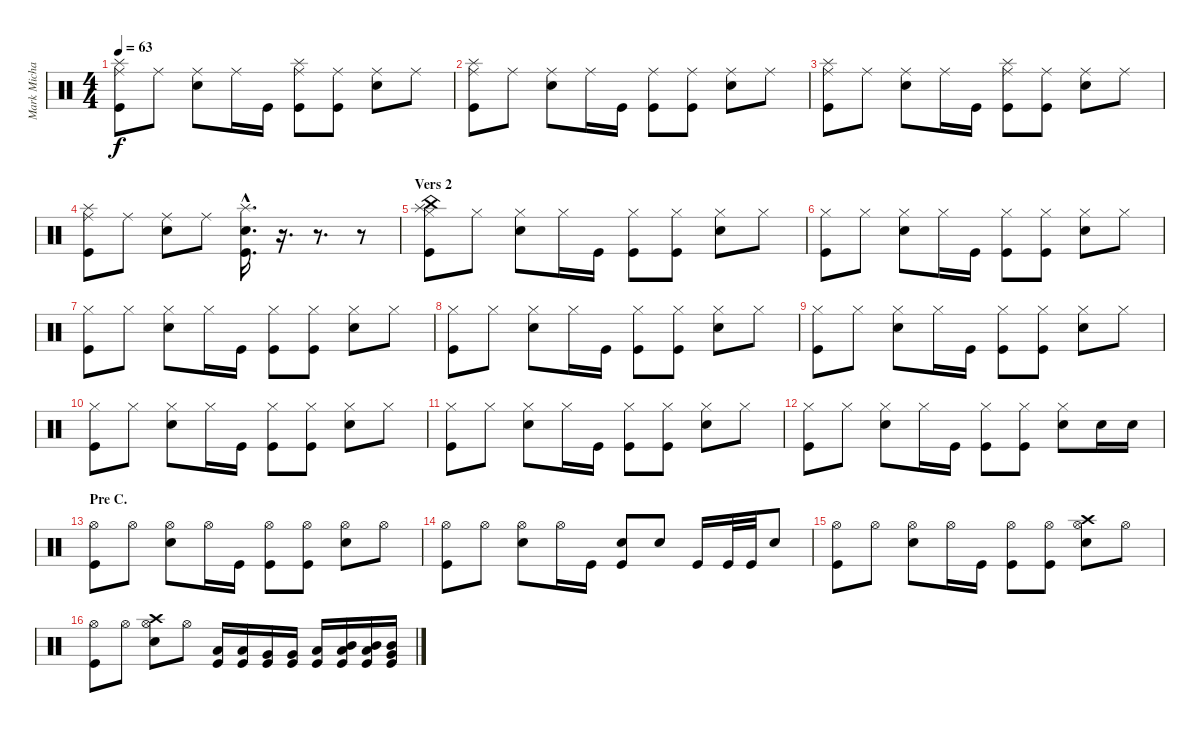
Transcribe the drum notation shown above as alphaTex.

\track ("Mark Michals - Drums" "Mark Micha") {instrument percussion}
\staff {score}
\articulation defaults
\ts (4 4)
\tempo 63
\clef neutral
\ks c
("Ride (middle)" "Splash (hit)" "Kick (hit)").8{dy f} "Ride (middle)".8 ("Ride (middle)" "Snare (hit) 2").8 "Ride (middle)".16 "Kick (hit)".16 ("Ride (middle)" "Splash (hit)" "Kick (hit)").8 ("Ride (middle)" "Kick (hit)").8 ("Ride (middle)" "Snare (hit) 2").8 "Ride (middle)".8 |
("Ride (middle)" "Splash (hit)" "Kick (hit)").8 "Ride (middle)".8 ("Ride (middle)" "Snare (hit) 2").8 "Ride (middle)".16 "Kick (hit)".16 ("Ride (middle)" "Kick (hit)").8 ("Ride (middle)" "Kick (hit)").8 ("Ride (middle)" "Snare (hit) 2").8 "Ride (middle)".8 |
("Ride (middle)" "Splash (hit)" "Kick (hit)").8 "Ride (middle)".8 ("Ride (middle)" "Snare (hit) 2").8 "Ride (middle)".16 "Kick (hit)".16 ("Ride (middle)" "Splash (hit)" "Kick (hit)").8 ("Ride (middle)" "Kick (hit)").8 ("Ride (middle)" "Snare (hit) 2").8 "Ride (middle)".8 |
("Ride (middle)" "Splash (hit)" "Kick (hit)").8 "Ride (middle)".8 ("Ride (middle)" "Snare (hit) 2").8 "Ride (middle)".8 ("Splash (hit)"{hac} "Snare (hit) 2"{hac} "Kick (hit)"{hac}).16{d} r.16{d volume 0} r.8{d} r.8{volume 13} |
\section ("" "Vers 2")
("Hi-Hat (closed)" "China (hit)" "Splash (hit)" "Kick (hit)").8 "Hi-Hat (closed)".8 ("Hi-Hat (closed)" "Snare (hit) 2").8 "Hi-Hat (closed)".16 "Kick (hit)".16 ("Hi-Hat (closed)" "Kick (hit)").8 ("Hi-Hat (closed)" "Kick (hit)").8 ("Hi-Hat (closed)" "Snare (hit) 2").8 "Hi-Hat (closed)".8 |
("Hi-Hat (closed)" "Kick (hit)").8 "Hi-Hat (closed)".8 ("Hi-Hat (closed)" "Snare (hit) 2").8 "Hi-Hat (closed)".16 "Kick (hit)".16 ("Hi-Hat (closed)" "Kick (hit)").8 ("Hi-Hat (closed)" "Kick (hit)").8 ("Hi-Hat (closed)" "Snare (hit) 2").8 "Hi-Hat (closed)".8 |
("Hi-Hat (closed)" "Kick (hit)").8 "Hi-Hat (closed)".8 ("Hi-Hat (closed)" "Snare (hit) 2").8 "Hi-Hat (closed)".16 "Kick (hit)".16 ("Hi-Hat (closed)" "Kick (hit)").8 ("Hi-Hat (closed)" "Kick (hit)").8 ("Hi-Hat (closed)" "Snare (hit) 2").8 "Hi-Hat (closed)".8 |
("Hi-Hat (closed)" "Kick (hit)").8 "Hi-Hat (closed)".8 ("Hi-Hat (closed)" "Snare (hit) 2").8 "Hi-Hat (closed)".16 "Kick (hit)".16 ("Hi-Hat (closed)" "Kick (hit)").8 ("Hi-Hat (closed)" "Kick (hit)").8 ("Hi-Hat (closed)" "Snare (hit) 2").8 "Hi-Hat (closed)".8 |
("Hi-Hat (closed)" "Kick (hit)").8 "Hi-Hat (closed)".8 ("Hi-Hat (closed)" "Snare (hit) 2").8 "Hi-Hat (closed)".16 "Kick (hit)".16 ("Hi-Hat (closed)" "Kick (hit)").8 ("Hi-Hat (closed)" "Kick (hit)").8 ("Hi-Hat (closed)" "Snare (hit) 2").8 "Hi-Hat (closed)".8 |
("Hi-Hat (closed)" "Kick (hit)").8 "Hi-Hat (closed)".8 ("Hi-Hat (closed)" "Snare (hit) 2").8 "Hi-Hat (closed)".16 "Kick (hit)".16 ("Hi-Hat (closed)" "Kick (hit)").8 ("Hi-Hat (closed)" "Kick (hit)").8 ("Hi-Hat (closed)" "Snare (hit) 2").8 "Hi-Hat (closed)".8 |
("Hi-Hat (closed)" "Kick (hit)").8 "Hi-Hat (closed)".8 ("Hi-Hat (closed)" "Snare (hit) 2").8 "Hi-Hat (closed)".16 "Kick (hit)".16 ("Hi-Hat (closed)" "Kick (hit)").8 ("Hi-Hat (closed)" "Kick (hit)").8 ("Hi-Hat (closed)" "Snare (hit) 2").8 "Hi-Hat (closed)".8 |
("Hi-Hat (closed)" "Kick (hit)").8 "Hi-Hat (closed)".8 ("Hi-Hat (closed)" "Snare (hit) 2").8 "Hi-Hat (closed)".16 "Kick (hit)".16 ("Hi-Hat (closed)" "Kick (hit)").8 ("Hi-Hat (closed)" "Kick (hit)").8 ("Hi-Hat (closed)" "Snare (hit) 2").8 "Snare (hit) 2".16 "Snare (hit) 2".16 |
\section ("" "Pre C.")
("Hi-Hat (open)" "Kick (hit)").8 "Hi-Hat (open)".8 ("Hi-Hat (open)" "Snare (hit) 2").8 "Hi-Hat (open)".16 "Kick (hit)".16 ("Hi-Hat (open)" "Kick (hit)").8 ("Hi-Hat (open)" "Kick (hit)").8 ("Hi-Hat (open)" "Snare (hit) 2").8 "Hi-Hat (open)".8 |
("Hi-Hat (open)" "Kick (hit)").8 "Hi-Hat (open)".8 ("Hi-Hat (open)" "Snare (hit) 2").8 "Hi-Hat (open)".16 "Kick (hit)".16 ("Snare (hit) 2" "Kick (hit)").8 "Snare (hit) 2".8 "Kick (hit)".16 "Kick (hit)".32 "Kick (hit)".32 "Snare (hit) 2".8 |
("Hi-Hat (open)" "Kick (hit)").8 "Hi-Hat (open)".8 ("Hi-Hat (open)" "Snare (hit) 2").8 "Hi-Hat (open)".16 "Kick (hit)".16 ("Hi-Hat (open)" "Kick (hit)").8 ("Hi-Hat (open)" "Kick (hit)").8 ("Hi-Hat (open)" "Crash high (hit)" "Snare (hit) 2").8 "Hi-Hat (open)".8 |
("Hi-Hat (open)" "Kick (hit)").8 "Hi-Hat (open)".8 ("Hi-Hat (open)" "Crash high (hit)" "Snare (hit) 2").8 "Hi-Hat (open)".8 ("Low Floor Tom (hit)" "Kick (hit)").16 ("Low Floor Tom (hit)" "Kick (hit)").16 ("Very Low Tom (hit)" "Kick (hit)").16 ("Very Low Tom (hit)" "Kick (hit)").16 ("Low Tom (hit)" "Kick (hit)").16 ("Mid Tom (hit)" "Low Tom (hit)" "Kick (hit)").16 ("Low Tom (hit)" "Mid Tom (hit)" "Kick (hit)").16 ("Very Low Tom (hit)" "Mid Tom (hit)" "Kick (hit)").16
